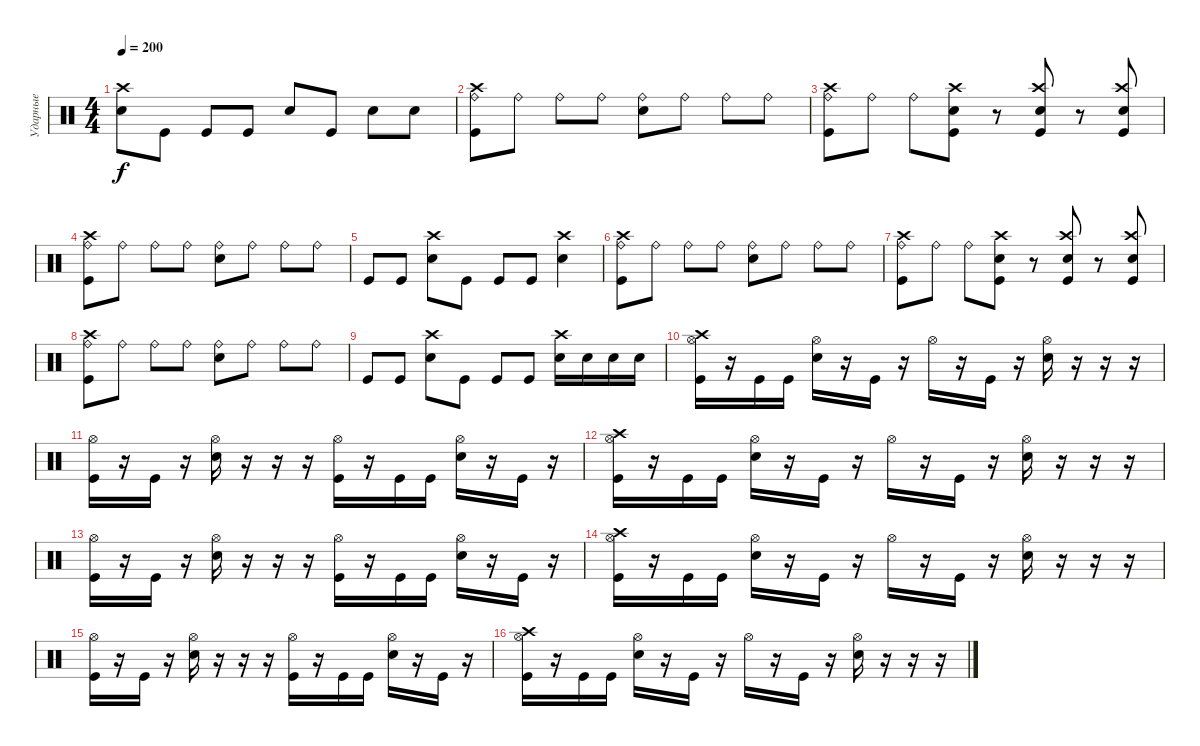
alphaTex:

\track ("Ударные" "Ударные") {instrument percussion}
\staff {score}
\articulation defaults
\ts (4 4)
\tempo 200
\clef neutral
\ks c
("Electric Snare (hit)" "Crash high (hit)").8{dy f} "Kick (hit)".8 "Kick (hit)".8 "Kick (hit)".8 "Electric Snare (hit)".8 "Kick (hit)".8 "Electric Snare (hit)".8 "Electric Snare (hit)".8 |
("Ride (bell)" "Crash high (hit)" "Kick (hit)").8 "Ride (bell)".8 "Ride (bell)".8 "Ride (bell)".8 ("Ride (bell)" "Electric Snare (hit)").8 "Ride (bell)".8 "Ride (bell)".8 "Ride (bell)".8 |
("Ride (bell)" "Crash high (hit)" "Kick (hit)").8 "Ride (bell)".8 "Ride (bell)".8 ("Electric Snare (hit)" "Crash high (hit)" "Kick (hit)").8 r.8 ("Electric Snare (hit)" "Crash high (hit)" "Kick (hit)").8 r.8 ("Electric Snare (hit)" "Crash high (hit)" "Kick (hit)").8 |
("Ride (bell)" "Crash high (hit)" "Kick (hit)").8 "Ride (bell)".8 "Ride (bell)".8 "Ride (bell)".8 ("Ride (bell)" "Electric Snare (hit)").8 "Ride (bell)".8 "Ride (bell)".8 "Ride (bell)".8 |
"Kick (hit)".8 "Kick (hit)".8 ("Electric Snare (hit)" "Crash high (hit)").8 "Kick (hit)".8 "Kick (hit)".8 "Kick (hit)".8 ("Electric Snare (hit)" "Crash high (hit)").4 |
("Ride (bell)" "Crash high (hit)" "Kick (hit)").8 "Ride (bell)".8 "Ride (bell)".8 "Ride (bell)".8 ("Ride (bell)" "Electric Snare (hit)").8 "Ride (bell)".8 "Ride (bell)".8 "Ride (bell)".8 |
("Ride (bell)" "Crash high (hit)" "Kick (hit)").8 "Ride (bell)".8 "Ride (bell)".8 ("Electric Snare (hit)" "Crash high (hit)" "Kick (hit)").8 r.8 ("Electric Snare (hit)" "Crash high (hit)" "Kick (hit)").8 r.8 ("Electric Snare (hit)" "Crash high (hit)" "Kick (hit)").8 |
("Ride (bell)" "Crash high (hit)" "Kick (hit)").8 "Ride (bell)".8 "Ride (bell)".8 "Ride (bell)".8 ("Ride (bell)" "Electric Snare (hit)").8 "Ride (bell)".8 "Ride (bell)".8 "Ride (bell)".8 |
"Kick (hit)".8 "Kick (hit)".8 ("Electric Snare (hit)" "Crash high (hit)").8 "Kick (hit)".8 "Kick (hit)".8 "Kick (hit)".8 ("Electric Snare (hit)" "Crash high (hit)").16 "Electric Snare (hit)".16 "Electric Snare (hit)".16 "Electric Snare (hit)".16 |
("Hi-Hat (open)" "Crash high (hit)" "Kick (hit)").16 r.16 "Kick (hit)".16 "Kick (hit)".16 ("Hi-Hat (open)" "Electric Snare (hit)").16 r.16 "Kick (hit)".16 r.16 "Hi-Hat (open)".16 r.16 "Kick (hit)".16 r.16 ("Hi-Hat (open)" "Electric Snare (hit)").16 r.16 r.16 r.16 |
("Hi-Hat (open)" "Kick (hit)").16 r.16 "Kick (hit)".16 r.16 ("Hi-Hat (open)" "Electric Snare (hit)").16 r.16 r.16 r.16 ("Hi-Hat (open)" "Kick (hit)").16 r.16 "Kick (hit)".16 "Kick (hit)".16 ("Hi-Hat (open)" "Electric Snare (hit)").16 r.16 "Kick (hit)".16 r.16 |
("Hi-Hat (open)" "Crash high (hit)" "Kick (hit)").16 r.16 "Kick (hit)".16 "Kick (hit)".16 ("Hi-Hat (open)" "Electric Snare (hit)").16 r.16 "Kick (hit)".16 r.16 "Hi-Hat (open)".16 r.16 "Kick (hit)".16 r.16 ("Hi-Hat (open)" "Electric Snare (hit)").16 r.16 r.16 r.16 |
("Hi-Hat (open)" "Kick (hit)").16 r.16 "Kick (hit)".16 r.16 ("Hi-Hat (open)" "Electric Snare (hit)").16 r.16 r.16 r.16 ("Hi-Hat (open)" "Kick (hit)").16 r.16 "Kick (hit)".16 "Kick (hit)".16 ("Hi-Hat (open)" "Electric Snare (hit)").16 r.16 "Kick (hit)".16 r.16 |
("Hi-Hat (open)" "Crash high (hit)" "Kick (hit)").16 r.16 "Kick (hit)".16 "Kick (hit)".16 ("Hi-Hat (open)" "Electric Snare (hit)").16 r.16 "Kick (hit)".16 r.16 "Hi-Hat (open)".16 r.16 "Kick (hit)".16 r.16 ("Hi-Hat (open)" "Electric Snare (hit)").16 r.16 r.16 r.16 |
("Hi-Hat (open)" "Kick (hit)").16 r.16 "Kick (hit)".16 r.16 ("Hi-Hat (open)" "Electric Snare (hit)").16 r.16 r.16 r.16 ("Hi-Hat (open)" "Kick (hit)").16 r.16 "Kick (hit)".16 "Kick (hit)".16 ("Hi-Hat (open)" "Electric Snare (hit)").16 r.16 "Kick (hit)".16 r.16 |
("Hi-Hat (open)" "Crash high (hit)" "Kick (hit)").16 r.16 "Kick (hit)".16 "Kick (hit)".16 ("Hi-Hat (open)" "Electric Snare (hit)").16 r.16 "Kick (hit)".16 r.16 "Hi-Hat (open)".16 r.16 "Kick (hit)".16 r.16 ("Hi-Hat (open)" "Electric Snare (hit)").16 r.16 r.16 r.16
